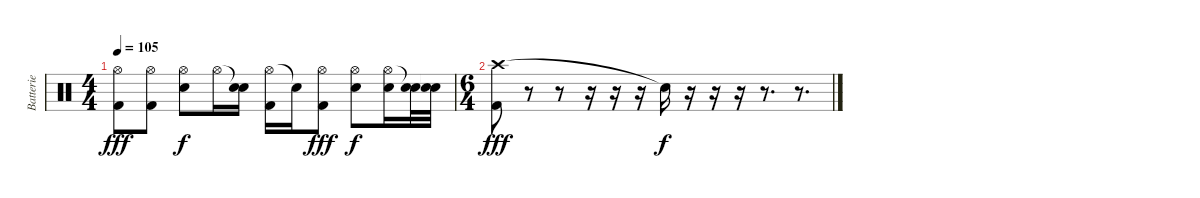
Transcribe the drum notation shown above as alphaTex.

\track ("Batterie" "Batterie") {instrument percussion}
\staff {score}
\articulation defaults
\ts (4 4)
\tempo 105
\clef neutral
\ks c
("Hi-Hat (open)" "Kick (hit) 2").8{dy fff} ("Hi-Hat (open)" "Kick (hit) 2").8 ("Hi-Hat (open)" "Electric Snare (hit)").8{dy f} "Hi-Hat (open)".16 ("Snare (hit)"{t} "Electric Snare (hit)").16 ("Hi-Hat (open)" "Kick (hit) 2").16 "Snare (hit)"{t}.16 ("Hi-Hat (open)" "Kick (hit) 2").8{dy fff} ("Hi-Hat (open)" "Electric Snare (hit)").8{dy f} ("Hi-Hat (open)" "Electric Snare (hit)").16 ("Snare (hit)"{t} "Electric Snare (hit)").32 ("Snare (hit)"{t} "Electric Snare (hit)").32 |
\ts (6 4)
("Crash high (hit)" "Kick (hit) 2").8{dy fff} r.8 r.8 r.16 r.16 r.16 "Snare (hit)"{t}.16{dy f} r.16 r.16 r.16 r.8{d} r.8{d}
